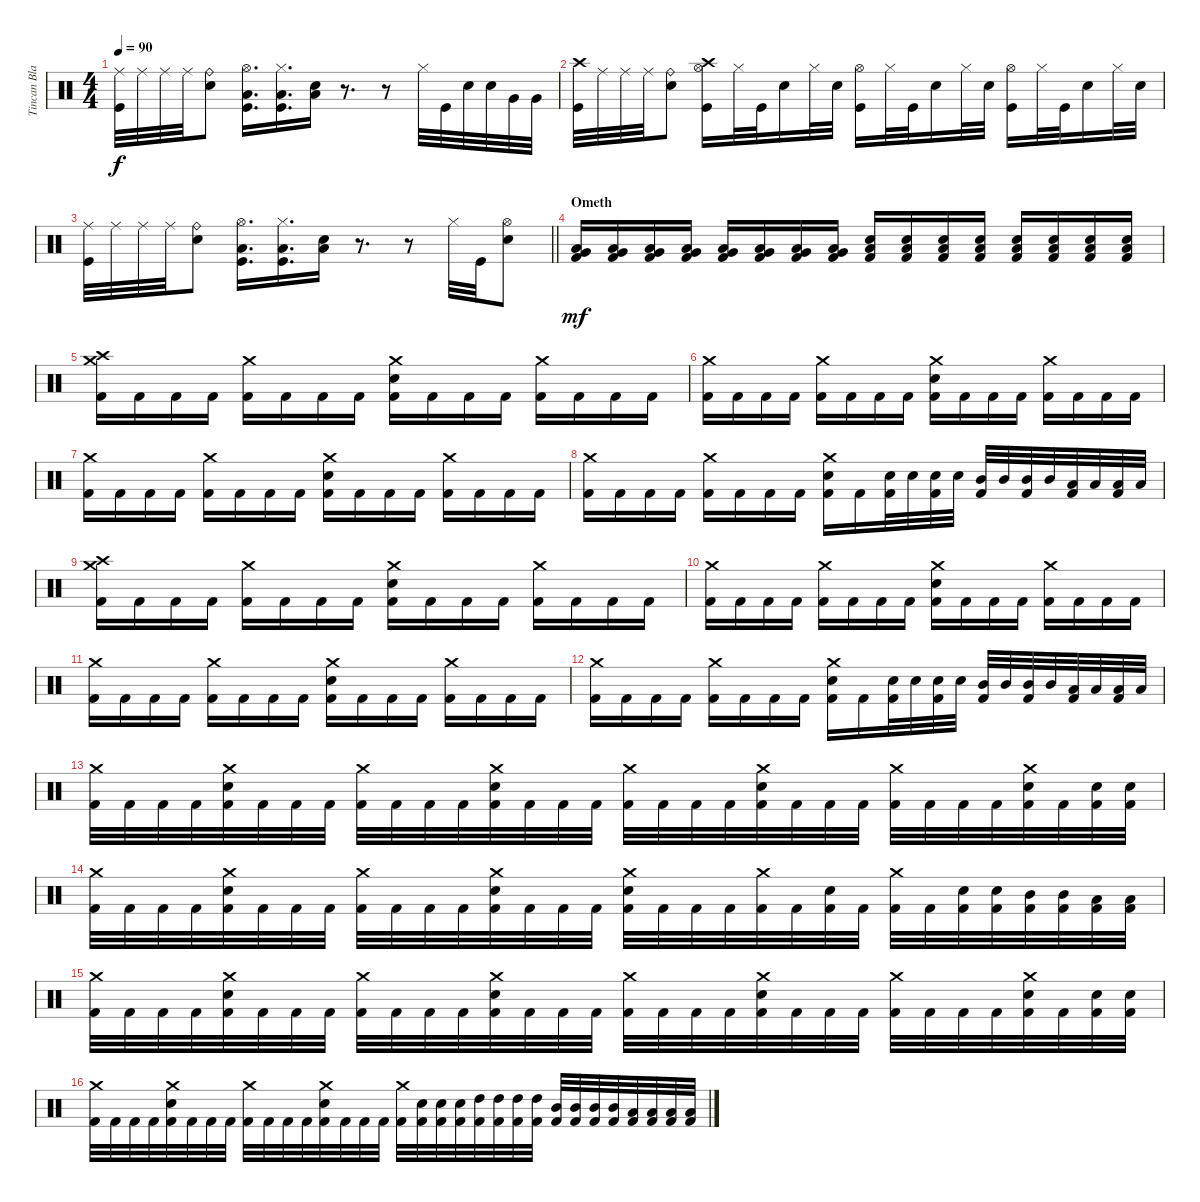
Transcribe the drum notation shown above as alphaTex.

\track ("Tincan Blaster" "Tincan Bla") {instrument percussion}
\staff {score}
\articulation defaults
\ts (4 4)
\tempo 90
\clef neutral
\ks c
("Ride (middle)" "Kick (hit)").32{dy f} "Ride (middle)".32 "Ride (middle)".32 "Ride (middle)".32 ("Ride (bell)" "Electric Snare (hit)").8 ("Hi-Hat (open)" "Low Floor Tom (hit)" "Kick (hit)").16{d} ("Hi-Hat (closed)" "Low Floor Tom (hit)" "Kick (hit)").16{d} ("Electric Snare (hit)" "Low Floor Tom (hit)").16 r.8{d} r.8 "Hi-Hat (closed)".32 "Kick (hit)".32 "Electric Snare (hit)".32 "Electric Snare (hit)".32 "Very Low Tom (hit)".32 "Very Low Tom (hit)".32 |
("Crash high (hit)" "Kick (hit)").32 "Ride (middle)".32 "Ride (middle)".32 "Ride (middle)".32 ("Ride (bell)" "Electric Snare (hit)").8 ("Crash high (hit)" "Hi-Hat (open)" "Kick (hit)").16 "Hi-Hat (closed)".32 "Kick (hit)".32 "Electric Snare (hit)".16 "Hi-Hat (closed)".32 "Electric Snare (hit)".32 ("Hi-Hat (open)" "Kick (hit)").16 "Hi-Hat (closed)".32 "Kick (hit)".32 "Electric Snare (hit)".16 "Hi-Hat (closed)".32 "Electric Snare (hit)".32 ("Hi-Hat (open)" "Kick (hit)").16 "Hi-Hat (closed)".32 "Kick (hit)".32 "Electric Snare (hit)".16 "Hi-Hat (closed)".32 "Electric Snare (hit)".32 |
\barLineRight lightlight
("Ride (middle)" "Kick (hit)").32 "Ride (middle)".32 "Ride (middle)".32 "Ride (middle)".32 ("Ride (bell)" "Electric Snare (hit)").8 ("Hi-Hat (open)" "Low Floor Tom (hit)" "Kick (hit)").16{d} ("Hi-Hat (closed)" "Low Floor Tom (hit)" "Kick (hit)").16{d} ("Electric Snare (hit)" "Low Floor Tom (hit)").16 r.8{d} r.8 "Hi-Hat (closed)".32 "Kick (hit)".32 ("Hi-Hat (open)" "Electric Snare (hit)").8 |
\section ("" "Ometh")
("Low Tom (hit)" "Very Low Tom (hit)" "Kick (hit) 2").16{dy mf} ("Low Tom (hit)" "Very Low Tom (hit)" "Kick (hit) 2").16 ("Low Tom (hit)" "Very Low Tom (hit)" "Kick (hit) 2").16 ("Low Tom (hit)" "Very Low Tom (hit)" "Kick (hit) 2").16 ("Low Tom (hit)" "Very Low Tom (hit)" "Kick (hit) 2").16 ("Low Tom (hit)" "Very Low Tom (hit)" "Kick (hit) 2").16 ("Low Tom (hit)" "Very Low Tom (hit)" "Kick (hit) 2").16 ("Low Tom (hit)" "Very Low Tom (hit)" "Kick (hit) 2").16 ("Low Tom (hit)" "Electric Snare (hit)" "Kick (hit) 2").16 ("Low Tom (hit)" "Electric Snare (hit)" "Kick (hit) 2").16 ("Low Tom (hit)" "Electric Snare (hit)" "Kick (hit) 2").16 ("Low Tom (hit)" "Electric Snare (hit)" "Kick (hit) 2").16 ("Low Tom (hit)" "Electric Snare (hit)" "Kick (hit) 2").16 ("Low Tom (hit)" "Electric Snare (hit)" "Kick (hit) 2").16 ("Low Tom (hit)" "Electric Snare (hit)" "Kick (hit) 2").16 ("Low Tom (hit)" "Electric Snare (hit)" "Kick (hit) 2").16 |
("Crash medium (hit)" "Crash high (hit)" "Kick (hit) 2").16 "Kick (hit) 2".16 "Kick (hit) 2".16 "Kick (hit) 2".16 ("Crash medium (hit)" "Kick (hit) 2").16 "Kick (hit) 2".16 "Kick (hit) 2".16 "Kick (hit) 2".16 ("Crash medium (hit)" "Electric Snare (hit)" "Kick (hit) 2").16 "Kick (hit) 2".16 "Kick (hit) 2".16 "Kick (hit) 2".16 ("Crash medium (hit)" "Kick (hit) 2").16 "Kick (hit) 2".16 "Kick (hit) 2".16 "Kick (hit) 2".16 |
("Crash medium (hit)" "Kick (hit) 2").16 "Kick (hit) 2".16 "Kick (hit) 2".16 "Kick (hit) 2".16 ("Crash medium (hit)" "Kick (hit) 2").16 "Kick (hit) 2".16 "Kick (hit) 2".16 "Kick (hit) 2".16 ("Crash medium (hit)" "Electric Snare (hit)" "Kick (hit) 2").16 "Kick (hit) 2".16 "Kick (hit) 2".16 "Kick (hit) 2".16 ("Crash medium (hit)" "Kick (hit) 2").16 "Kick (hit) 2".16 "Kick (hit) 2".16 "Kick (hit) 2".16 |
("Crash medium (hit)" "Kick (hit) 2").16 "Kick (hit) 2".16 "Kick (hit) 2".16 "Kick (hit) 2".16 ("Crash medium (hit)" "Kick (hit) 2").16 "Kick (hit) 2".16 "Kick (hit) 2".16 "Kick (hit) 2".16 ("Crash medium (hit)" "Electric Snare (hit)" "Kick (hit) 2").16 "Kick (hit) 2".16 "Kick (hit) 2".16 "Kick (hit) 2".16 ("Crash medium (hit)" "Kick (hit) 2").16 "Kick (hit) 2".16 "Kick (hit) 2".16 "Kick (hit) 2".16 |
("Crash medium (hit)" "Kick (hit) 2").16 "Kick (hit) 2".16 "Kick (hit) 2".16 "Kick (hit) 2".16 ("Crash medium (hit)" "Kick (hit) 2").16 "Kick (hit) 2".16 "Kick (hit) 2".16 "Kick (hit) 2".16 ("Crash medium (hit)" "Electric Snare (hit)" "Kick (hit) 2").16 "Kick (hit) 2".16 ("Electric Snare (hit)" "Kick (hit) 2").32 "Electric Snare (hit)".32 ("Electric Snare (hit)" "Kick (hit) 2").32 "Electric Snare (hit)".32 ("Mid Tom (hit)" "Kick (hit) 2").32 "Mid Tom (hit)".32 ("Mid Tom (hit)" "Kick (hit) 2").32 "Mid Tom (hit)".32 ("Low Tom (hit)" "Kick (hit) 2").32 "Low Tom (hit)".32 ("Low Tom (hit)" "Kick (hit) 2").32 "Low Tom (hit)".32 |
("Crash medium (hit)" "Crash high (hit)" "Kick (hit) 2").16 "Kick (hit) 2".16 "Kick (hit) 2".16 "Kick (hit) 2".16 ("Crash medium (hit)" "Kick (hit) 2").16 "Kick (hit) 2".16 "Kick (hit) 2".16 "Kick (hit) 2".16 ("Crash medium (hit)" "Electric Snare (hit)" "Kick (hit) 2").16 "Kick (hit) 2".16 "Kick (hit) 2".16 "Kick (hit) 2".16 ("Crash medium (hit)" "Kick (hit) 2").16 "Kick (hit) 2".16 "Kick (hit) 2".16 "Kick (hit) 2".16 |
("Crash medium (hit)" "Kick (hit) 2").16 "Kick (hit) 2".16 "Kick (hit) 2".16 "Kick (hit) 2".16 ("Crash medium (hit)" "Kick (hit) 2").16 "Kick (hit) 2".16 "Kick (hit) 2".16 "Kick (hit) 2".16 ("Crash medium (hit)" "Electric Snare (hit)" "Kick (hit) 2").16 "Kick (hit) 2".16 "Kick (hit) 2".16 "Kick (hit) 2".16 ("Crash medium (hit)" "Kick (hit) 2").16 "Kick (hit) 2".16 "Kick (hit) 2".16 "Kick (hit) 2".16 |
("Crash medium (hit)" "Kick (hit) 2").16 "Kick (hit) 2".16 "Kick (hit) 2".16 "Kick (hit) 2".16 ("Crash medium (hit)" "Kick (hit) 2").16 "Kick (hit) 2".16 "Kick (hit) 2".16 "Kick (hit) 2".16 ("Crash medium (hit)" "Electric Snare (hit)" "Kick (hit) 2").16 "Kick (hit) 2".16 "Kick (hit) 2".16 "Kick (hit) 2".16 ("Crash medium (hit)" "Kick (hit) 2").16 "Kick (hit) 2".16 "Kick (hit) 2".16 "Kick (hit) 2".16 |
("Crash medium (hit)" "Kick (hit) 2").16 "Kick (hit) 2".16 "Kick (hit) 2".16 "Kick (hit) 2".16 ("Crash medium (hit)" "Kick (hit) 2").16 "Kick (hit) 2".16 "Kick (hit) 2".16 "Kick (hit) 2".16 ("Crash medium (hit)" "Electric Snare (hit)" "Kick (hit) 2").16 "Kick (hit) 2".16 ("Electric Snare (hit)" "Kick (hit) 2").32 "Electric Snare (hit)".32 ("Electric Snare (hit)" "Kick (hit) 2").32 "Electric Snare (hit)".32 ("Mid Tom (hit)" "Kick (hit) 2").32 "Mid Tom (hit)".32 ("Mid Tom (hit)" "Kick (hit) 2").32 "Mid Tom (hit)".32 ("Low Tom (hit)" "Kick (hit) 2").32 "Low Tom (hit)".32 ("Low Tom (hit)" "Kick (hit) 2").32 "Low Tom (hit)".32 |
("Crash medium (hit)" "Kick (hit) 2").32 "Kick (hit) 2".32 "Kick (hit) 2".32 "Kick (hit) 2".32 ("Crash medium (hit)" "Electric Snare (hit)" "Kick (hit) 2").32 "Kick (hit) 2".32 "Kick (hit) 2".32 "Kick (hit) 2".32 ("Crash medium (hit)" "Kick (hit) 2").32 "Kick (hit) 2".32 "Kick (hit) 2".32 "Kick (hit) 2".32 ("Crash medium (hit)" "Electric Snare (hit)" "Kick (hit) 2").32 "Kick (hit) 2".32 "Kick (hit) 2".32 "Kick (hit) 2".32 ("Crash medium (hit)" "Kick (hit) 2").32 "Kick (hit) 2".32 "Kick (hit) 2".32 "Kick (hit) 2".32 ("Crash medium (hit)" "Electric Snare (hit)" "Kick (hit) 2").32 "Kick (hit) 2".32 "Kick (hit) 2".32 "Kick (hit) 2".32 ("Crash medium (hit)" "Kick (hit) 2").32 "Kick (hit) 2".32 "Kick (hit) 2".32 "Kick (hit) 2".32 ("Crash medium (hit)" "Electric Snare (hit)" "Kick (hit) 2").32 "Kick (hit) 2".32 ("Electric Snare (hit)" "Kick (hit) 2").32 ("Electric Snare (hit)" "Kick (hit) 2").32 |
("Crash medium (hit)" "Kick (hit) 2").32 "Kick (hit) 2".32 "Kick (hit) 2".32 "Kick (hit) 2".32 ("Crash medium (hit)" "Electric Snare (hit)" "Kick (hit) 2").32 "Kick (hit) 2".32 "Kick (hit) 2".32 "Kick (hit) 2".32 ("Crash medium (hit)" "Kick (hit) 2").32 "Kick (hit) 2".32 "Kick (hit) 2".32 "Kick (hit) 2".32 ("Crash medium (hit)" "Electric Snare (hit)" "Kick (hit) 2").32 "Kick (hit) 2".32 "Kick (hit) 2".32 "Kick (hit) 2".32 ("Crash medium (hit)" "Electric Snare (hit)" "Kick (hit) 2").32 "Kick (hit) 2".32 "Kick (hit) 2".32 "Kick (hit) 2".32 ("Crash medium (hit)" "Kick (hit) 2").32 "Kick (hit) 2".32 ("Electric Snare (hit)" "Kick (hit) 2").32 "Kick (hit) 2".32 ("Crash medium (hit)" "Kick (hit) 2").32 "Kick (hit) 2".32 ("Electric Snare (hit)" "Kick (hit) 2").32 ("Electric Snare (hit)" "Kick (hit) 2").32 ("Mid Tom (hit)" "Kick (hit) 2").32 ("Mid Tom (hit)" "Kick (hit) 2").32 ("Low Tom (hit)" "Kick (hit) 2").32 ("Low Tom (hit)" "Kick (hit) 2").32 |
("Crash medium (hit)" "Kick (hit) 2").32 "Kick (hit) 2".32 "Kick (hit) 2".32 "Kick (hit) 2".32 ("Crash medium (hit)" "Electric Snare (hit)" "Kick (hit) 2").32 "Kick (hit) 2".32 "Kick (hit) 2".32 "Kick (hit) 2".32 ("Crash medium (hit)" "Kick (hit) 2").32 "Kick (hit) 2".32 "Kick (hit) 2".32 "Kick (hit) 2".32 ("Crash medium (hit)" "Electric Snare (hit)" "Kick (hit) 2").32 "Kick (hit) 2".32 "Kick (hit) 2".32 "Kick (hit) 2".32 ("Crash medium (hit)" "Kick (hit) 2").32 "Kick (hit) 2".32 "Kick (hit) 2".32 "Kick (hit) 2".32 ("Crash medium (hit)" "Electric Snare (hit)" "Kick (hit) 2").32 "Kick (hit) 2".32 "Kick (hit) 2".32 "Kick (hit) 2".32 ("Crash medium (hit)" "Kick (hit) 2").32 "Kick (hit) 2".32 "Kick (hit) 2".32 "Kick (hit) 2".32 ("Crash medium (hit)" "Electric Snare (hit)" "Kick (hit) 2").32 "Kick (hit) 2".32 ("Electric Snare (hit)" "Kick (hit) 2").32 ("Electric Snare (hit)" "Kick (hit) 2").32 |
("Crash medium (hit)" "Kick (hit) 2").32 "Kick (hit) 2".32 "Kick (hit) 2".32 "Kick (hit) 2".32 ("Crash medium (hit)" "Electric Snare (hit)" "Kick (hit) 2").32 "Kick (hit) 2".32 "Kick (hit) 2".32 "Kick (hit) 2".32 ("Crash medium (hit)" "Kick (hit) 2").32 "Kick (hit) 2".32 "Kick (hit) 2".32 "Kick (hit) 2".32 ("Crash medium (hit)" "Electric Snare (hit)" "Kick (hit) 2").32 "Kick (hit) 2".32 "Kick (hit) 2".32 "Kick (hit) 2".32 ("Crash medium (hit)" "Kick (hit) 2").32 ("Electric Snare (hit)" "Kick (hit) 2").32 ("Electric Snare (hit)" "Kick (hit) 2").32 ("Electric Snare (hit)" "Kick (hit) 2").32 ("High Tom (hit)" "Kick (hit) 2").32 ("High Tom (hit)" "Kick (hit) 2").32 ("High Tom (hit)" "Kick (hit) 2").32 ("High Tom (hit)" "Kick (hit) 2").32 ("Mid Tom (hit)" "Kick (hit) 2").32 ("Mid Tom (hit)" "Kick (hit) 2").32 ("Mid Tom (hit)" "Kick (hit) 2").32 ("Mid Tom (hit)" "Kick (hit) 2").32 ("Low Tom (hit)" "Kick (hit) 2").32 ("Low Tom (hit)" "Kick (hit) 2").32 ("Low Tom (hit)" "Kick (hit) 2").32 ("Low Tom (hit)" "Kick (hit) 2").32
